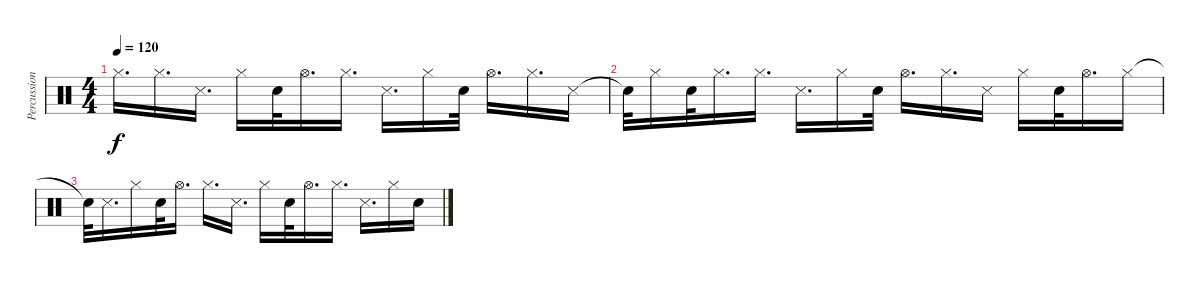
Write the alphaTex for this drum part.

\track ("Percussioni" "Percussion") {instrument percussion}
\staff {score}
\articulation defaults
\ts (4 4)
\tempo 120
\clef neutral
\ks c "Hi-Hat (closed)".16{d dy f} "Hi-Hat (closed)".16{d} "Snare (side stick) 3".16{d} "Hi-Hat (closed)".16 "Electric Snare (hit)".32 "Hi-Hat (open)".16{d} "Hi-Hat (closed)".16{d} "Snare (side stick) 3".16{d} "Hi-Hat (closed)".16 "Electric Snare (hit)".32 "Hi-Hat (open)".16{d} "Hi-Hat (closed)".16{d} "Snare (side stick) 3".16
|
"Snare (hit)"{t}.32 "Hi-Hat (closed)".16 "Electric Snare (hit)".32 "Hi-Hat (closed)".16{d} "Hi-Hat (closed)".16{d} "Snare (side stick) 3".16{d} "Hi-Hat (closed)".16 "Electric Snare (hit)".32 "Hi-Hat (open)".16{d} "Hi-Hat (closed)".16{d} "Snare (side stick) 3".16 "Hi-Hat (closed)".16 "Electric Snare (hit)".32 "Hi-Hat (open)".16{d} "Hi-Hat (closed)".16 |
"Snare (hit)"{t}.32 "Snare (side stick) 3".16{d} "Hi-Hat (closed)".16 "Electric Snare (hit)".32 "Hi-Hat (open)".16{d} "Hi-Hat (closed)".16{d} "Snare (side stick) 3".16{d} "Hi-Hat (closed)".16 "Electric Snare (hit)".32 "Hi-Hat (open)".16{d} "Hi-Hat (closed)".16{d} "Snare (side stick) 3".16{d} "Hi-Hat (closed)".16 "Electric Snare (hit)".16
